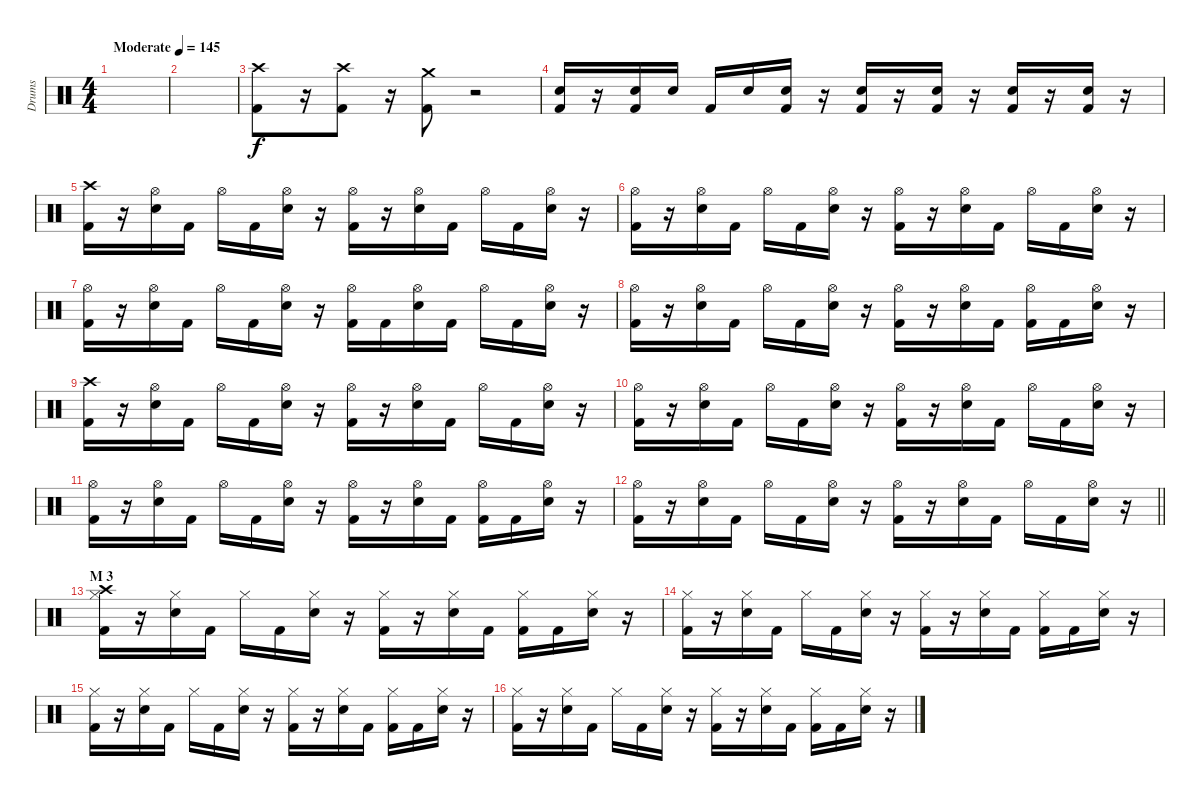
\track ("Drums" "Drums") {instrument percussion}
\staff {score}
\articulation defaults
\ts (4 4)
\tempo (145 "Moderate")
\clef neutral
\ks c
|
|
("Crash high (hit)" "Kick (hit) 2").8 r.16 ("Crash high (hit)" "Kick (hit) 2").8 r.16 ("Crash medium (hit)" "Kick (hit) 2").8 r.2 |
("Electric Snare (hit)" "Kick (hit) 2").16 r.16 ("Electric Snare (hit)" "Kick (hit) 2").16 "Electric Snare (hit)".16 "Kick (hit) 2".16 "Electric Snare (hit)".16 ("Electric Snare (hit)" "Kick (hit) 2").16 r.16 ("Electric Snare (hit)" "Kick (hit) 2").16 r.16 ("Electric Snare (hit)" "Kick (hit) 2").16 r.16 ("Electric Snare (hit)" "Kick (hit) 2").16 r.16 ("Electric Snare (hit)" "Kick (hit) 2").16 r.16 |
("Crash high (hit)" "Kick (hit) 2").16 r.16 ("Hi-Hat (open)" "Electric Snare (hit)").16 "Kick (hit) 2".16 "Hi-Hat (open)".16 "Kick (hit) 2".16 ("Hi-Hat (open)" "Electric Snare (hit)").16 r.16 ("Hi-Hat (open)" "Kick (hit) 2").16 r.16 ("Hi-Hat (open)" "Electric Snare (hit)").16 "Kick (hit) 2".16 "Hi-Hat (open)".16 "Kick (hit) 2".16 ("Hi-Hat (open)" "Electric Snare (hit)").16 r.16 |
("Hi-Hat (open)" "Kick (hit) 2").16 r.16 ("Hi-Hat (open)" "Electric Snare (hit)").16 "Kick (hit) 2".16 "Hi-Hat (open)".16 "Kick (hit) 2".16 ("Hi-Hat (open)" "Electric Snare (hit)").16 r.16 ("Hi-Hat (open)" "Kick (hit) 2").16 r.16 ("Hi-Hat (open)" "Electric Snare (hit)").16 "Kick (hit) 2".16 "Hi-Hat (open)".16 "Kick (hit) 2".16 ("Hi-Hat (open)" "Electric Snare (hit)").16 r.16 |
("Hi-Hat (open)" "Kick (hit) 2").16 r.16 ("Hi-Hat (open)" "Electric Snare (hit)").16 "Kick (hit) 2".16 "Hi-Hat (open)".16 "Kick (hit) 2".16 ("Hi-Hat (open)" "Electric Snare (hit)").16 r.16 ("Hi-Hat (open)" "Kick (hit) 2").16 "Kick (hit) 2".16 ("Hi-Hat (open)" "Electric Snare (hit)").16 "Kick (hit) 2".16 "Hi-Hat (open)".16 "Kick (hit) 2".16 ("Hi-Hat (open)" "Electric Snare (hit)").16 r.16 |
("Hi-Hat (open)" "Kick (hit) 2").16 r.16 ("Hi-Hat (open)" "Electric Snare (hit)").16 "Kick (hit) 2".16 "Hi-Hat (open)".16 "Kick (hit) 2".16 ("Hi-Hat (open)" "Electric Snare (hit)").16 r.16 ("Hi-Hat (open)" "Kick (hit) 2").16 r.16 ("Hi-Hat (open)" "Electric Snare (hit)").16 "Kick (hit) 2".16 ("Hi-Hat (open)" "Kick (hit) 2").16 "Kick (hit) 2".16 ("Hi-Hat (open)" "Electric Snare (hit)").16 r.16 |
("Crash high (hit)" "Kick (hit) 2").16 r.16 ("Hi-Hat (open)" "Electric Snare (hit)").16 "Kick (hit) 2".16 "Hi-Hat (open)".16 "Kick (hit) 2".16 ("Hi-Hat (open)" "Electric Snare (hit)").16 r.16 ("Hi-Hat (open)" "Kick (hit) 2").16 r.16 ("Hi-Hat (open)" "Electric Snare (hit)").16 "Kick (hit) 2".16 "Hi-Hat (open)".16 "Kick (hit) 2".16 ("Hi-Hat (open)" "Electric Snare (hit)").16 r.16 |
("Hi-Hat (open)" "Kick (hit) 2").16 r.16 ("Hi-Hat (open)" "Electric Snare (hit)").16 "Kick (hit) 2".16 "Hi-Hat (open)".16 "Kick (hit) 2".16 ("Hi-Hat (open)" "Electric Snare (hit)").16 r.16 ("Hi-Hat (open)" "Kick (hit) 2").16 r.16 ("Hi-Hat (open)" "Electric Snare (hit)").16 "Kick (hit) 2".16 "Hi-Hat (open)".16 "Kick (hit) 2".16 ("Hi-Hat (open)" "Electric Snare (hit)").16 r.16 |
("Hi-Hat (open)" "Kick (hit) 2").16 r.16 ("Hi-Hat (open)" "Electric Snare (hit)").16 "Kick (hit) 2".16 "Hi-Hat (open)".16 "Kick (hit) 2".16 ("Hi-Hat (open)" "Electric Snare (hit)").16 r.16 ("Hi-Hat (open)" "Kick (hit) 2").16 r.16 ("Hi-Hat (open)" "Electric Snare (hit)").16 "Kick (hit) 2".16 ("Hi-Hat (open)" "Kick (hit) 2").16 "Kick (hit) 2".16 ("Hi-Hat (open)" "Electric Snare (hit)").16 r.16 |
\barLineRight lightlight
("Hi-Hat (open)" "Kick (hit) 2").16 r.16 ("Hi-Hat (open)" "Electric Snare (hit)").16 "Kick (hit) 2".16 "Hi-Hat (open)".16 "Kick (hit) 2".16 ("Hi-Hat (open)" "Electric Snare (hit)").16 r.16 ("Hi-Hat (open)" "Kick (hit) 2").16 r.16 ("Hi-Hat (open)" "Electric Snare (hit)").16 "Kick (hit) 2".16 "Hi-Hat (open)".16 "Kick (hit) 2".16 ("Hi-Hat (open)" "Electric Snare (hit)").16 r.16 |
\section ("" "M 3")
("Crash high (hit)" "Hi-Hat (closed)" "Kick (hit) 2").16 r.16 ("Hi-Hat (closed)" "Electric Snare (hit)").16 "Kick (hit) 2".16 "Hi-Hat (closed)".16 "Kick (hit) 2".16 ("Hi-Hat (closed)" "Electric Snare (hit)").16 r.16 ("Hi-Hat (closed)" "Kick (hit) 2").16 r.16 ("Hi-Hat (closed)" "Electric Snare (hit)").16 "Kick (hit) 2".16 ("Hi-Hat (closed)" "Kick (hit) 2").16 "Kick (hit) 2".16 ("Hi-Hat (closed)" "Electric Snare (hit)").16 r.16 |
("Hi-Hat (closed)" "Kick (hit) 2").16 r.16 ("Hi-Hat (closed)" "Electric Snare (hit)").16 "Kick (hit) 2".16 "Hi-Hat (closed)".16 "Kick (hit) 2".16 ("Hi-Hat (closed)" "Electric Snare (hit)").16 r.16 ("Hi-Hat (closed)" "Kick (hit) 2").16 r.16 ("Hi-Hat (closed)" "Electric Snare (hit)").16 "Kick (hit) 2".16 ("Hi-Hat (closed)" "Kick (hit) 2").16 "Kick (hit) 2".16 ("Hi-Hat (closed)" "Electric Snare (hit)").16 r.16 |
("Hi-Hat (closed)" "Kick (hit) 2").16 r.16 ("Hi-Hat (closed)" "Electric Snare (hit)").16 "Kick (hit) 2".16 "Hi-Hat (closed)".16 "Kick (hit) 2".16 ("Hi-Hat (closed)" "Electric Snare (hit)").16 r.16 ("Hi-Hat (closed)" "Kick (hit) 2").16 r.16 ("Hi-Hat (closed)" "Electric Snare (hit)").16 "Kick (hit) 2".16 ("Hi-Hat (closed)" "Kick (hit) 2").16 "Kick (hit) 2".16 ("Hi-Hat (closed)" "Electric Snare (hit)").16 r.16 |
("Hi-Hat (closed)" "Kick (hit) 2").16 r.16 ("Hi-Hat (closed)" "Electric Snare (hit)").16 "Kick (hit) 2".16 "Hi-Hat (closed)".16 "Kick (hit) 2".16 ("Hi-Hat (closed)" "Electric Snare (hit)").16 r.16 ("Hi-Hat (closed)" "Kick (hit) 2").16 r.16 ("Hi-Hat (closed)" "Electric Snare (hit)").16 "Kick (hit) 2".16 ("Hi-Hat (closed)" "Kick (hit) 2").16 "Kick (hit) 2".16 ("Hi-Hat (closed)" "Electric Snare (hit)").16 r.16
